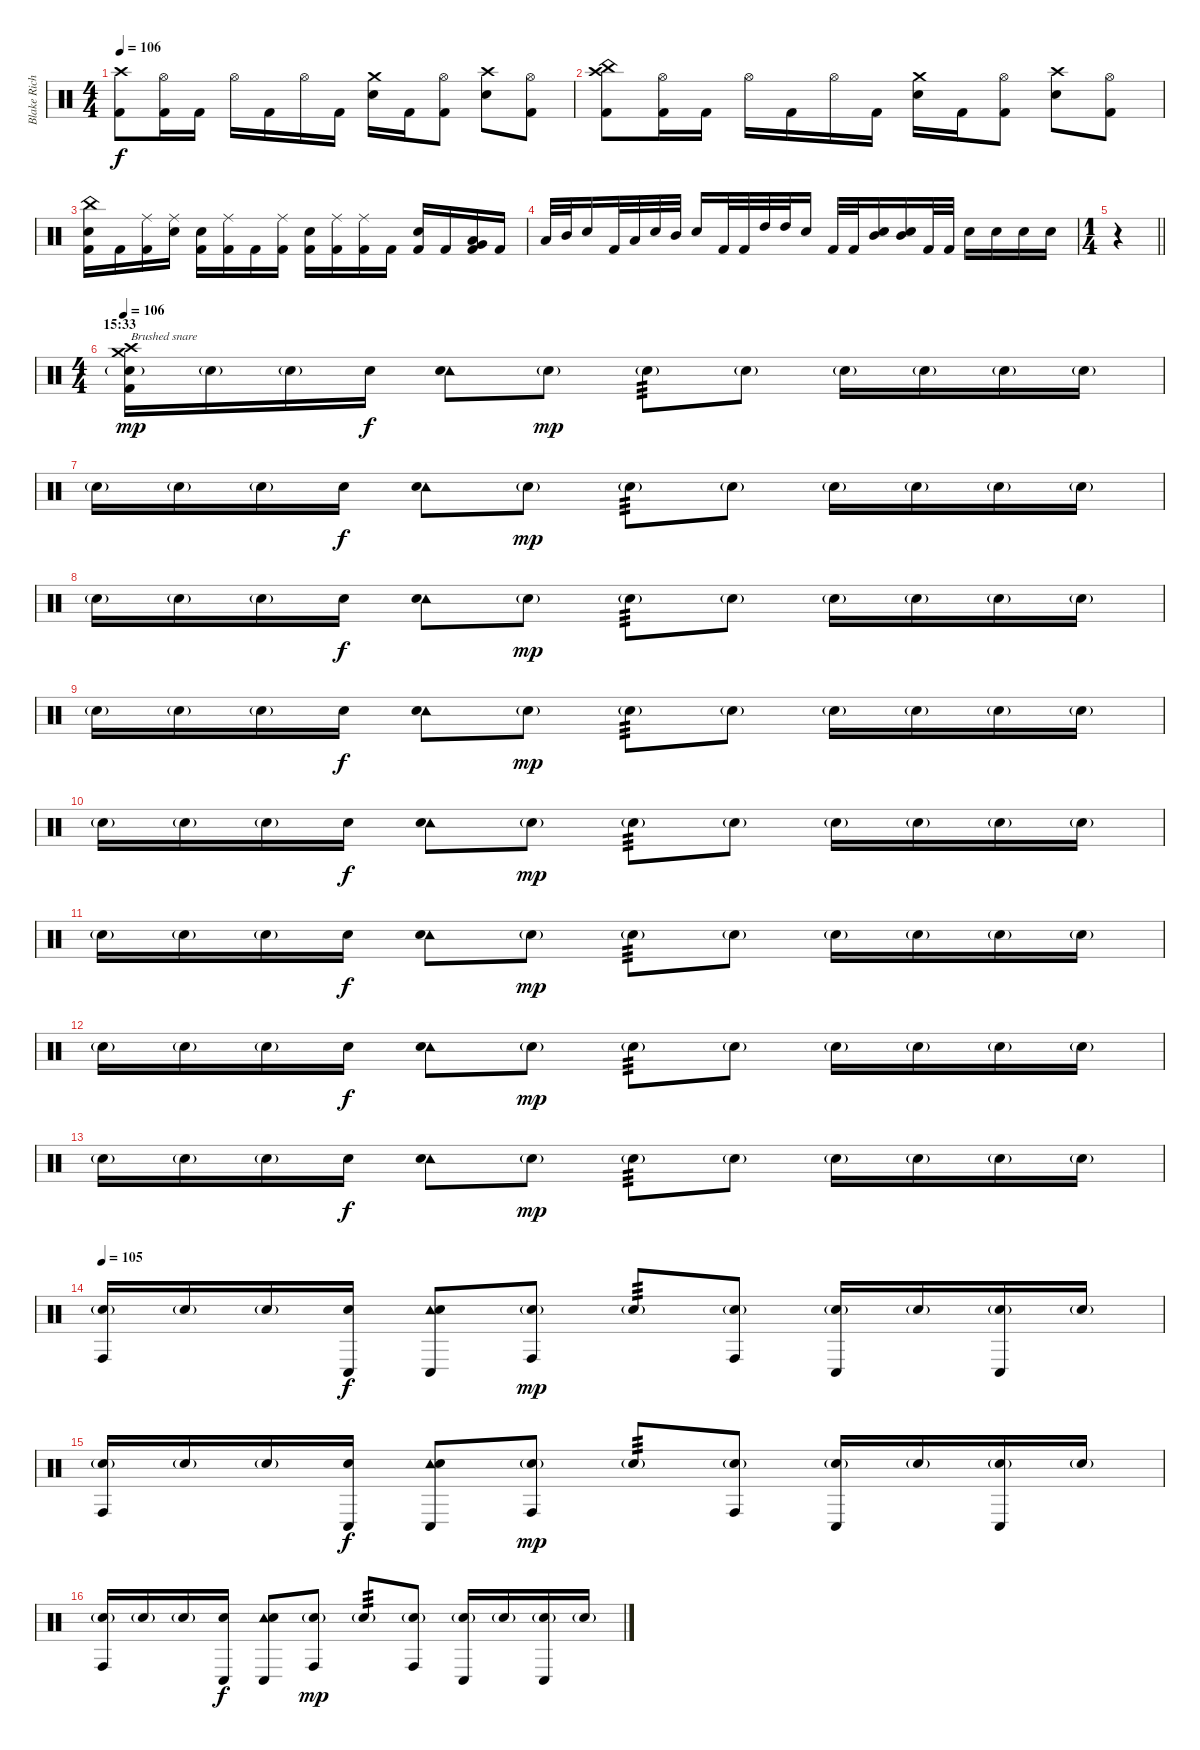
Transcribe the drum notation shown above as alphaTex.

\track ("Blake Richardson" "Blake Rich") {instrument percussion}
\staff {score}
\articulation defaults
\ts (4 4)
\tempo 106
\clef neutral
\ks c
("Crash high (hit)" "Kick (hit) 2").8{dy f} ("Hi-Hat (open)" "Kick (hit) 2").16 "Kick (hit) 2".16 "Hi-Hat (open)".16 "Kick (hit) 2".16 "Hi-Hat (open)".16 "Kick (hit) 2".16 ("Crash medium (hit)" "Electric Snare (hit)").16 "Kick (hit) 2".16 ("Hi-Hat (open)" "Kick (hit) 2").8 ("Crash high (hit)" "Electric Snare (hit)").8 ("Hi-Hat (open)" "Kick (hit) 2").8 |
("China (hit)" "Crash high (hit)" "Kick (hit) 2").8 ("Hi-Hat (open)" "Kick (hit) 2").16 "Kick (hit) 2".16 "Hi-Hat (open)".16 "Kick (hit) 2".16 "Hi-Hat (open)".16 "Kick (hit) 2".16 ("Crash medium (hit)" "Electric Snare (hit)").16 "Kick (hit) 2".16 ("Hi-Hat (open)" "Kick (hit) 2").8 ("Crash high (hit)" "Electric Snare (hit)").8 ("Hi-Hat (open)" "Kick (hit) 2").8 |
("China (hit)" "Electric Snare (hit)" "Kick (hit) 2").16 "Kick (hit) 2".16 ("Ride (middle)" "Kick (hit) 2").16 ("Ride (middle)" "Snare (hit)").16 ("Electric Snare (hit)" "Kick (hit) 2").16 ("Ride (middle)" "Kick (hit) 2").16 "Kick (hit) 2".16 ("Ride (middle)" "Kick (hit) 2").16 ("Electric Snare (hit)" "Kick (hit) 2").16 ("Ride (middle)" "Kick (hit) 2").16 ("Ride (middle)" "Kick (hit) 2").16 "Kick (hit) 2".16 ("Electric Snare (hit)" "Kick (hit) 2").16 "Kick (hit) 2".16 ("Low Tom (hit)" "Very Low Tom (hit)" "Kick (hit) 2").16 "Kick (hit) 2".16 |
"Low Tom (hit)".32 "Mid Tom (hit)".32 "Electric Snare (hit)".16 "Kick (hit) 2".32 "Low Tom (hit)".32 "Electric Snare (hit)".32 "Mid Tom (hit)".32 "Electric Snare (hit)".16 "Kick (hit) 2".32 "Kick (hit) 2".32 "High Tom (hit)".32 "High Tom (hit)".32 "Electric Snare (hit)".16 "Kick (hit) 2".32 "Kick (hit) 2".32 ("Electric Snare (hit)" "Mid Tom (hit)").16 ("Electric Snare (hit)" "Mid Tom (hit)").16 "Kick (hit) 2".32 "Kick (hit) 2".32 "Electric Snare (hit)".16 "Electric Snare (hit)".16 "Electric Snare (hit)".16 "Electric Snare (hit)".16 |
\ts (1 4)
\barLineRight lightlight
r.4 |
\ts (4 4)
\section ("" "15:33")
\tempo 106
("Crash high (hit)" "Crash medium (hit)" "Electric Snare (hit)"{g} "Kick (hit) 2").16{txt "Brushed snare" dy mp volume 10 balance 8} "Electric Snare (hit)"{g}.16 "Electric Snare (hit)"{g}.16 "Electric Snare (hit)".16{dy f} ("Tambourine (hit)" "Electric Snare (hit)").8 "Electric Snare (hit)"{g}.8{dy mp} "Electric Snare (hit)"{g}.8{tp 3} "Electric Snare (hit)"{g}.8 "Electric Snare (hit)"{g}.16 "Electric Snare (hit)"{g}.16 "Electric Snare (hit)"{g}.16 "Electric Snare (hit)"{g}.16 |
"Electric Snare (hit)"{g}.16 "Electric Snare (hit)"{g}.16 "Electric Snare (hit)"{g}.16 "Electric Snare (hit)".16{dy f} ("Tambourine (hit)" "Electric Snare (hit)").8 "Electric Snare (hit)"{g}.8{dy mp} "Electric Snare (hit)"{g}.8{tp 3} "Electric Snare (hit)"{g}.8 "Electric Snare (hit)"{g}.16 "Electric Snare (hit)"{g}.16 "Electric Snare (hit)"{g}.16 "Electric Snare (hit)"{g}.16 |
"Electric Snare (hit)"{g}.16 "Electric Snare (hit)"{g}.16 "Electric Snare (hit)"{g}.16 "Electric Snare (hit)".16{dy f} ("Tambourine (hit)" "Electric Snare (hit)").8 "Electric Snare (hit)"{g}.8{dy mp} "Electric Snare (hit)"{g}.8{tp 3} "Electric Snare (hit)"{g}.8 "Electric Snare (hit)"{g}.16 "Electric Snare (hit)"{g}.16 "Electric Snare (hit)"{g}.16 "Electric Snare (hit)"{g}.16 |
"Electric Snare (hit)"{g}.16 "Electric Snare (hit)"{g}.16 "Electric Snare (hit)"{g}.16 "Electric Snare (hit)".16{dy f} ("Tambourine (hit)" "Electric Snare (hit)").8 "Electric Snare (hit)"{g}.8{dy mp} "Electric Snare (hit)"{g}.8{tp 3} "Electric Snare (hit)"{g}.8 "Electric Snare (hit)"{g}.16 "Electric Snare (hit)"{g}.16 "Electric Snare (hit)"{g}.16 "Electric Snare (hit)"{g}.16 |
"Electric Snare (hit)"{g}.16 "Electric Snare (hit)"{g}.16 "Electric Snare (hit)"{g}.16 "Electric Snare (hit)".16{dy f} ("Tambourine (hit)" "Electric Snare (hit)").8 "Electric Snare (hit)"{g}.8{dy mp} "Electric Snare (hit)"{g}.8{tp 3} "Electric Snare (hit)"{g}.8 "Electric Snare (hit)"{g}.16 "Electric Snare (hit)"{g}.16 "Electric Snare (hit)"{g}.16 "Electric Snare (hit)"{g}.16 |
"Electric Snare (hit)"{g}.16 "Electric Snare (hit)"{g}.16 "Electric Snare (hit)"{g}.16 "Electric Snare (hit)".16{dy f} ("Tambourine (hit)" "Electric Snare (hit)").8 "Electric Snare (hit)"{g}.8{dy mp} "Electric Snare (hit)"{g}.8{tp 3} "Electric Snare (hit)"{g}.8 "Electric Snare (hit)"{g}.16 "Electric Snare (hit)"{g}.16 "Electric Snare (hit)"{g}.16 "Electric Snare (hit)"{g}.16 |
"Electric Snare (hit)"{g}.16 "Electric Snare (hit)"{g}.16 "Electric Snare (hit)"{g}.16 "Electric Snare (hit)".16{dy f} ("Tambourine (hit)" "Electric Snare (hit)").8 "Electric Snare (hit)"{g}.8{dy mp} "Electric Snare (hit)"{g}.8{tp 3} "Electric Snare (hit)"{g}.8 "Electric Snare (hit)"{g}.16 "Electric Snare (hit)"{g}.16 "Electric Snare (hit)"{g}.16 "Electric Snare (hit)"{g}.16 |
"Electric Snare (hit)"{g}.16 "Electric Snare (hit)"{g}.16 "Electric Snare (hit)"{g}.16 "Electric Snare (hit)".16{dy f} ("Tambourine (hit)" "Electric Snare (hit)").8 "Electric Snare (hit)"{g}.8{dy mp} "Electric Snare (hit)"{g}.8{tp 3} "Electric Snare (hit)"{g}.8 "Electric Snare (hit)"{g}.16 "Electric Snare (hit)"{g}.16 "Electric Snare (hit)"{g}.16 "Electric Snare (hit)"{g}.16 |
\tempo 105
("Electric Snare (hit)"{g} "Conga high (hit)").16 "Electric Snare (hit)"{g}.16 "Electric Snare (hit)"{g}.16 ("Electric Snare (hit)" "Conga low (hit)").16{dy f} ("Tambourine (hit)" "Electric Snare (hit)" "Conga low (hit)").8 ("Electric Snare (hit)"{g} "Conga high (hit)").8{dy mp} "Electric Snare (hit)"{g}.8{tp 3} ("Electric Snare (hit)"{g} "Conga high (hit)").8 ("Electric Snare (hit)"{g} "Conga low (hit)").16 "Electric Snare (hit)"{g}.16 ("Electric Snare (hit)"{g} "Conga low (hit)").16 "Electric Snare (hit)"{g}.16 |
("Electric Snare (hit)"{g} "Conga high (hit)").16 "Electric Snare (hit)"{g}.16 "Electric Snare (hit)"{g}.16 ("Electric Snare (hit)" "Conga low (hit)").16{dy f} ("Tambourine (hit)" "Electric Snare (hit)" "Conga low (hit)").8 ("Electric Snare (hit)"{g} "Conga high (hit)").8{dy mp} "Electric Snare (hit)"{g}.8{tp 3} ("Electric Snare (hit)"{g} "Conga high (hit)").8 ("Electric Snare (hit)"{g} "Conga low (hit)").16 "Electric Snare (hit)"{g}.16 ("Electric Snare (hit)"{g} "Conga low (hit)").16 "Electric Snare (hit)"{g}.16 |
("Electric Snare (hit)"{g} "Conga high (hit)").16 "Electric Snare (hit)"{g}.16 "Electric Snare (hit)"{g}.16 ("Electric Snare (hit)" "Conga low (hit)").16{dy f} ("Tambourine (hit)" "Electric Snare (hit)" "Conga low (hit)").8 ("Electric Snare (hit)"{g} "Conga high (hit)").8{dy mp} "Electric Snare (hit)"{g}.8{tp 3} ("Electric Snare (hit)"{g} "Conga high (hit)").8 ("Electric Snare (hit)"{g} "Conga low (hit)").16 "Electric Snare (hit)"{g}.16 ("Electric Snare (hit)"{g} "Conga low (hit)").16 "Electric Snare (hit)"{g}.16
